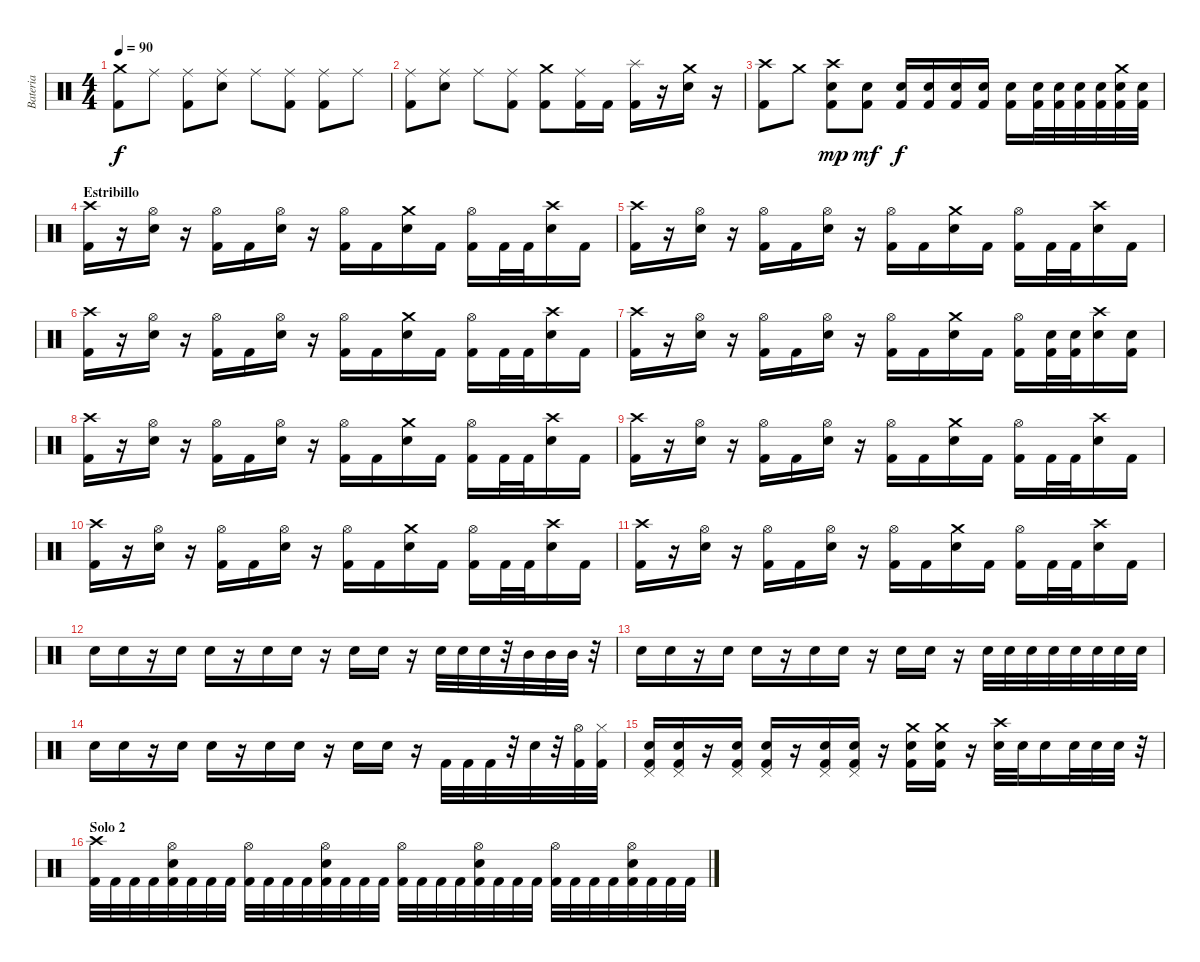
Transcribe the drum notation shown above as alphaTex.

\track ("Bateria" "Bateria") {instrument percussion}
\staff {score}
\articulation defaults
\ts (4 4)
\tempo 90
\clef neutral
\ks c
("Crash medium (hit)" "Kick (hit) 2").8{dy f} "Ride (middle)".8 ("Ride (middle)" "Kick (hit) 2").8 ("Ride (middle)" "Snare (hit) 2").8 "Ride (middle)".8 ("Ride (middle)" "Kick (hit) 2").8 ("Ride (middle)" "Kick (hit) 2").8 "Ride (middle)".8 |
("Ride (middle)" "Kick (hit) 2").8 ("Ride (middle)" "Snare (hit) 2").8 "Ride (middle)".8 ("Ride (middle)" "Kick (hit) 2").8 ("Crash medium (hit)" "Kick (hit) 2").8 ("Ride (middle)" "Kick (hit) 2").16 "Kick (hit) 2".16 ("Splash (hit)" "Kick (hit) 2").16 r.16 ("Crash medium (hit)" "Snare (hit) 2").16 r.16 |
("Crash high (hit)" "Kick (hit) 2").8 "Crash medium (hit)".8 ("Crash high (hit)" "Snare (hit) 2" "Kick (hit) 2").8{dy mp} ("Snare (hit) 2" "Kick (hit) 2").8{dy mf} ("Snare (hit) 2" "Kick (hit) 2").16{dy f} ("Snare (hit) 2" "Kick (hit) 2").16 ("Snare (hit) 2" "Kick (hit) 2").16 ("Snare (hit) 2" "Kick (hit) 2").16 ("Snare (hit) 2" "Kick (hit) 2").16 ("Snare (hit) 2" "Kick (hit) 2").32 ("Snare (hit) 2" "Kick (hit) 2").32 ("Snare (hit) 2" "Kick (hit) 2").32 ("Snare (hit) 2" "Kick (hit) 2").32 ("Crash medium (hit)" "Snare (hit) 2" "Kick (hit) 2").32 ("Snare (hit) 2" "Kick (hit) 2").32 |
\section ("" "Estribillo")
("Crash high (hit)" "Kick (hit) 2").16 r.16 ("Hi-Hat (open)" "Snare (hit) 2").16 r.16 ("Hi-Hat (open)" "Kick (hit) 2").16 "Kick (hit) 2".16 ("Hi-Hat (open)" "Snare (hit) 2").16 r.16 ("Hi-Hat (open)" "Kick (hit) 2").16 "Kick (hit) 2".16 ("Crash medium (hit)" "Snare (hit) 2").16 "Kick (hit) 2".16 ("Hi-Hat (open)" "Kick (hit) 2").16 "Kick (hit) 2".32 "Kick (hit) 2".32 ("Crash high (hit)" "Snare (hit) 2").16 "Kick (hit) 2".16 |
("Crash high (hit)" "Kick (hit) 2").16 r.16 ("Hi-Hat (open)" "Snare (hit) 2").16 r.16 ("Hi-Hat (open)" "Kick (hit) 2").16 "Kick (hit) 2".16 ("Hi-Hat (open)" "Snare (hit) 2").16 r.16 ("Hi-Hat (open)" "Kick (hit) 2").16 "Kick (hit) 2".16 ("Crash medium (hit)" "Snare (hit) 2").16 "Kick (hit) 2".16 ("Hi-Hat (open)" "Kick (hit) 2").16 "Kick (hit) 2".32 "Kick (hit) 2".32 ("Crash high (hit)" "Snare (hit) 2").16 "Kick (hit) 2".16 |
("Crash high (hit)" "Kick (hit) 2").16 r.16 ("Hi-Hat (open)" "Snare (hit) 2").16 r.16 ("Hi-Hat (open)" "Kick (hit) 2").16 "Kick (hit) 2".16 ("Hi-Hat (open)" "Snare (hit) 2").16 r.16 ("Hi-Hat (open)" "Kick (hit) 2").16 "Kick (hit) 2".16 ("Crash medium (hit)" "Snare (hit) 2").16 "Kick (hit) 2".16 ("Hi-Hat (open)" "Kick (hit) 2").16 "Kick (hit) 2".32 "Kick (hit) 2".32 ("Crash high (hit)" "Snare (hit) 2").16 "Kick (hit) 2".16 |
("Crash high (hit)" "Kick (hit) 2").16 r.16 ("Hi-Hat (open)" "Snare (hit) 2").16 r.16 ("Hi-Hat (open)" "Kick (hit) 2").16 "Kick (hit) 2".16 ("Hi-Hat (open)" "Snare (hit) 2").16 r.16 ("Hi-Hat (open)" "Kick (hit) 2").16 "Kick (hit) 2".16 ("Crash medium (hit)" "Snare (hit) 2").16 "Kick (hit) 2".16 ("Hi-Hat (open)" "Kick (hit) 2").16 ("Snare (hit) 2" "Kick (hit) 2").32 ("Snare (hit) 2" "Kick (hit) 2").32 ("Crash high (hit)" "Snare (hit) 2").16 ("Snare (hit) 2" "Kick (hit) 2").16 |
("Crash high (hit)" "Kick (hit) 2").16 r.16 ("Hi-Hat (open)" "Snare (hit) 2").16 r.16 ("Hi-Hat (open)" "Kick (hit) 2").16 "Kick (hit) 2".16 ("Hi-Hat (open)" "Snare (hit) 2").16 r.16 ("Hi-Hat (open)" "Kick (hit) 2").16 "Kick (hit) 2".16 ("Crash medium (hit)" "Snare (hit) 2").16 "Kick (hit) 2".16 ("Hi-Hat (open)" "Kick (hit) 2").16 "Kick (hit) 2".32 "Kick (hit) 2".32 ("Crash high (hit)" "Snare (hit) 2").16 "Kick (hit) 2".16 |
("Crash high (hit)" "Kick (hit) 2").16 r.16 ("Hi-Hat (open)" "Snare (hit) 2").16 r.16 ("Hi-Hat (open)" "Kick (hit) 2").16 "Kick (hit) 2".16 ("Hi-Hat (open)" "Snare (hit) 2").16 r.16 ("Hi-Hat (open)" "Kick (hit) 2").16 "Kick (hit) 2".16 ("Crash medium (hit)" "Snare (hit) 2").16 "Kick (hit) 2".16 ("Hi-Hat (open)" "Kick (hit) 2").16 "Kick (hit) 2".32 "Kick (hit) 2".32 ("Crash high (hit)" "Snare (hit) 2").16 "Kick (hit) 2".16 |
("Crash high (hit)" "Kick (hit) 2").16 r.16 ("Hi-Hat (open)" "Snare (hit) 2").16 r.16 ("Hi-Hat (open)" "Kick (hit) 2").16 "Kick (hit) 2".16 ("Hi-Hat (open)" "Snare (hit) 2").16 r.16 ("Hi-Hat (open)" "Kick (hit) 2").16 "Kick (hit) 2".16 ("Crash medium (hit)" "Snare (hit) 2").16 "Kick (hit) 2".16 ("Hi-Hat (open)" "Kick (hit) 2").16 "Kick (hit) 2".32 "Kick (hit) 2".32 ("Crash high (hit)" "Snare (hit) 2").16 "Kick (hit) 2".16 |
("Crash high (hit)" "Kick (hit) 2").16 r.16 ("Hi-Hat (open)" "Snare (hit) 2").16 r.16 ("Hi-Hat (open)" "Kick (hit) 2").16 "Kick (hit) 2".16 ("Hi-Hat (open)" "Snare (hit) 2").16 r.16 ("Hi-Hat (open)" "Kick (hit) 2").16 "Kick (hit) 2".16 ("Crash medium (hit)" "Snare (hit) 2").16 "Kick (hit) 2".16 ("Hi-Hat (open)" "Kick (hit) 2").16 "Kick (hit) 2".32 "Kick (hit) 2".32 ("Crash high (hit)" "Snare (hit) 2").16 "Kick (hit) 2".16 |
"Snare (hit) 2".16 "Snare (hit) 2".16 r.16 "Snare (hit) 2".16 "Snare (hit) 2".16 r.16 "Snare (hit) 2".16 "Snare (hit) 2".16 r.16 "Snare (hit) 2".16 "Snare (hit) 2".16 r.16 "Snare (hit) 2".32 "Snare (hit) 2".32 "Snare (hit) 2".32 r.32 "Mid Tom (hit)".32 "Mid Tom (hit)".32 "Mid Tom (hit)".32 r.32 |
"Snare (hit) 2".16 "Snare (hit) 2".16 r.16 "Snare (hit) 2".16 "Snare (hit) 2".16 r.16 "Snare (hit) 2".16 "Snare (hit) 2".16 r.16 "Snare (hit) 2".16 "Snare (hit) 2".16 r.16 "Snare (hit) 2".32 "Snare (hit) 2".32 "Snare (hit) 2".32 "Snare (hit) 2".32 "Snare (hit) 2".32 "Snare (hit) 2".32 "Snare (hit) 2".32 "Snare (hit) 2".32 |
"Snare (hit) 2".16 "Snare (hit) 2".16 r.16 "Snare (hit) 2".16 "Snare (hit) 2".16 r.16 "Snare (hit) 2".16 "Snare (hit) 2".16 r.16 "Snare (hit) 2".16 "Snare (hit) 2".16 r.16 "Kick (hit) 2".32 "Kick (hit) 2".32 "Kick (hit) 2".32 r.32 "Snare (hit) 2".32 r.32 ("Hi-Hat (open)" "Kick (hit) 2").32 ("Hi-Hat (closed)" "Kick (hit) 2").32 |
("Pedal Hi-Hat (hit)" "Snare (hit) 2" "Kick (hit) 2").16 ("Pedal Hi-Hat (hit)" "Snare (hit) 2" "Kick (hit) 2").16 r.16 ("Pedal Hi-Hat (hit)" "Snare (hit) 2" "Kick (hit) 2").16 ("Pedal Hi-Hat (hit)" "Snare (hit) 2" "Kick (hit) 2").16 r.16 ("Pedal Hi-Hat (hit)" "Snare (hit) 2" "Kick (hit) 2").16 ("Pedal Hi-Hat (hit)" "Snare (hit) 2" "Kick (hit) 2").16 r.16 ("Crash medium (hit)" "Snare (hit) 2" "Kick (hit) 2").16 ("Crash medium (hit)" "Snare (hit) 2" "Kick (hit) 2").16 r.16 ("Crash high (hit)" "Snare (hit) 2").32 "Snare (hit) 2".32 "Snare (hit) 2".16 "Snare (hit) 2".32 "Snare (hit) 2".32 "Snare (hit) 2".32 r.32 |
\section ("" "Solo 2")
("Crash high (hit)" "Kick (hit) 2").32 "Kick (hit) 2".32 "Kick (hit) 2".32 "Kick (hit) 2".32 ("Hi-Hat (open)" "Snare (hit) 2" "Kick (hit) 2").32 "Kick (hit) 2".32 "Kick (hit) 2".32 "Kick (hit) 2".32 ("Hi-Hat (open)" "Kick (hit) 2").32 "Kick (hit) 2".32 "Kick (hit) 2".32 "Kick (hit) 2".32 ("Hi-Hat (open)" "Snare (hit) 2" "Kick (hit) 2").32 "Kick (hit) 2".32 "Kick (hit) 2".32 "Kick (hit) 2".32 ("Hi-Hat (open)" "Kick (hit) 2").32 "Kick (hit) 2".32 "Kick (hit) 2".32 "Kick (hit) 2".32 ("Hi-Hat (open)" "Snare (hit) 2" "Kick (hit) 2").32 "Kick (hit) 2".32 "Kick (hit) 2".32 "Kick (hit) 2".32 ("Hi-Hat (open)" "Kick (hit) 2").32 "Kick (hit) 2".32 "Kick (hit) 2".32 "Kick (hit) 2".32 ("Hi-Hat (open)" "Snare (hit) 2" "Kick (hit) 2").32 "Kick (hit) 2".32 "Kick (hit) 2".32 "Kick (hit) 2".32
